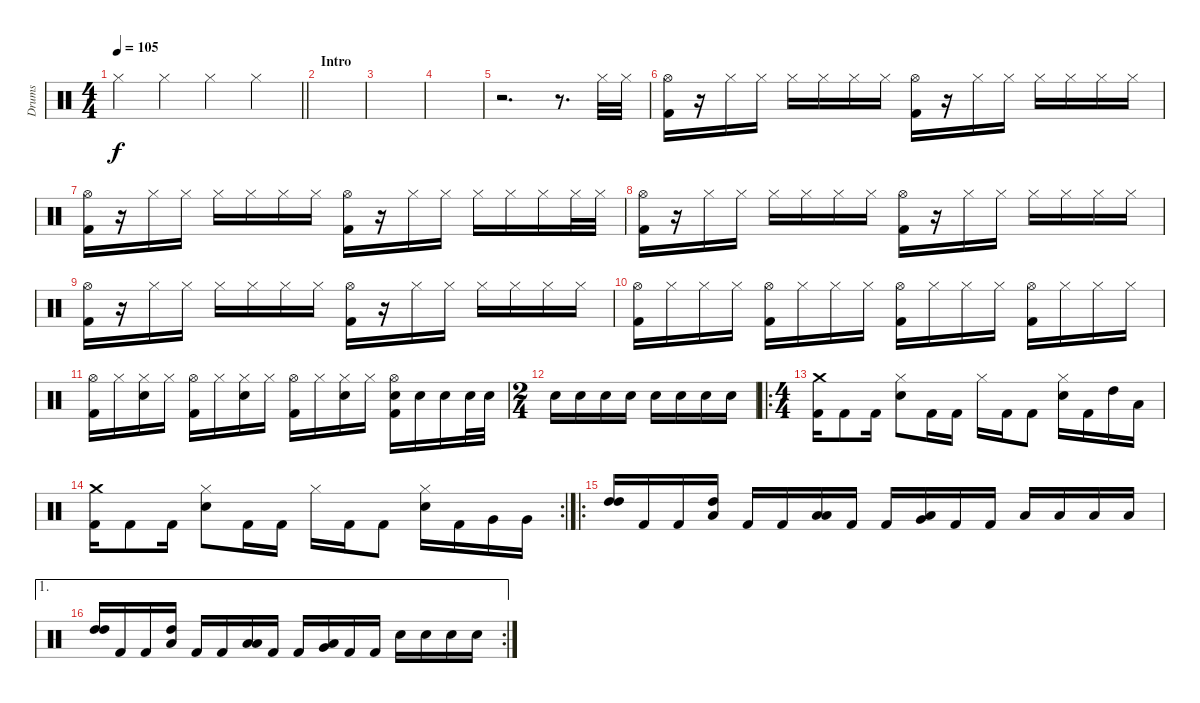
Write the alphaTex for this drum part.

\track ("Drums" "Drums") {instrument percussion}
\staff {score}
\articulation defaults
\ts (4 4)
\tempo 105
\clef neutral
\barLineRight lightlight
\ks c "Hi-Hat (closed)".4{dy f} "Hi-Hat (closed)".4 "Hi-Hat (closed)".4 "Hi-Hat (closed)".4
|
\section ("" "Intro")
|
|
|
r.2{d} r.8{d} "Hi-Hat (closed)".32 "Hi-Hat (closed)".32 |
("Hi-Hat (open)" "Kick (hit) 2").16 r.16 "Hi-Hat (closed)".16 "Hi-Hat (closed)".16 "Hi-Hat (closed)".16 "Hi-Hat (closed)".16 "Hi-Hat (closed)".16 "Hi-Hat (closed)".16 ("Hi-Hat (open)" "Kick (hit) 2").16 r.16 "Hi-Hat (closed)".16 "Hi-Hat (closed)".16 "Hi-Hat (closed)".16 "Hi-Hat (closed)".16 "Hi-Hat (closed)".16 "Hi-Hat (closed)".16 |
("Hi-Hat (open)" "Kick (hit) 2").16 r.16 "Hi-Hat (closed)".16 "Hi-Hat (closed)".16 "Hi-Hat (closed)".16 "Hi-Hat (closed)".16 "Hi-Hat (closed)".16 "Hi-Hat (closed)".16 ("Hi-Hat (open)" "Kick (hit) 2").16 r.16 "Hi-Hat (closed)".16 "Hi-Hat (closed)".16 "Hi-Hat (closed)".16 "Hi-Hat (closed)".16 "Hi-Hat (closed)".16 "Hi-Hat (closed)".32 "Hi-Hat (closed)".32 |
("Hi-Hat (open)" "Kick (hit) 2").16 r.16 "Hi-Hat (closed)".16 "Hi-Hat (closed)".16 "Hi-Hat (closed)".16 "Hi-Hat (closed)".16 "Hi-Hat (closed)".16 "Hi-Hat (closed)".16 ("Hi-Hat (open)" "Kick (hit) 2").16 r.16 "Hi-Hat (closed)".16 "Hi-Hat (closed)".16 "Hi-Hat (closed)".16 "Hi-Hat (closed)".16 "Hi-Hat (closed)".16 "Hi-Hat (closed)".16 |
("Hi-Hat (open)" "Kick (hit) 2").16 r.16 "Hi-Hat (closed)".16 "Hi-Hat (closed)".16 "Hi-Hat (closed)".16 "Hi-Hat (closed)".16 "Hi-Hat (closed)".16 "Hi-Hat (closed)".16 ("Hi-Hat (open)" "Kick (hit) 2").16 r.16 "Hi-Hat (closed)".16 "Hi-Hat (closed)".16 "Hi-Hat (closed)".16 "Hi-Hat (closed)".16 "Hi-Hat (closed)".16 "Hi-Hat (closed)".16 |
("Hi-Hat (open)" "Kick (hit) 2").16 "Hi-Hat (closed)".16 "Hi-Hat (closed)".16 "Hi-Hat (closed)".16 ("Hi-Hat (open)" "Kick (hit) 2").16 "Hi-Hat (closed)".16 "Hi-Hat (closed)".16 "Hi-Hat (closed)".16 ("Hi-Hat (open)" "Kick (hit) 2").16 "Hi-Hat (closed)".16 "Hi-Hat (closed)".16 "Hi-Hat (closed)".16 ("Hi-Hat (open)" "Kick (hit) 2").16 "Hi-Hat (closed)".16 "Hi-Hat (closed)".16 "Hi-Hat (closed)".16 |
("Hi-Hat (open)" "Kick (hit) 2").16 "Hi-Hat (closed)".16 ("Hi-Hat (closed)" "Snare (hit) 2").16 "Hi-Hat (closed)".16 ("Hi-Hat (open)" "Kick (hit) 2").16 "Hi-Hat (closed)".16 ("Hi-Hat (closed)" "Snare (hit) 2").16 "Hi-Hat (closed)".16 ("Hi-Hat (open)" "Kick (hit) 2").16 "Hi-Hat (closed)".16 ("Hi-Hat (closed)" "Snare (hit) 2").16 "Hi-Hat (closed)".16 ("Hi-Hat (open)" "Snare (hit) 2" "Kick (hit) 2").16 "Snare (hit) 2".16 "Snare (hit) 2".16 "Snare (hit) 2".32 "Snare (hit) 2".32 |
\ts (2 4)
"Snare (hit) 2".16 "Snare (hit) 2".16 "Snare (hit) 2".16 "Snare (hit) 2".16 "Snare (hit) 2".16 "Snare (hit) 2".16 "Snare (hit) 2".16 "Snare (hit) 2".16 |
\ro
\ts (4 4)
("Kick (hit) 2" "Crash medium (hit)").16 "Kick (hit) 2".8 "Kick (hit) 2".16 ("Snare (hit) 2" "Hi-Hat (closed)").8 "Kick (hit) 2".16 "Kick (hit) 2".16 "Hi-Hat (closed)".16 "Kick (hit) 2".16 "Kick (hit) 2".8 ("Snare (hit) 2" "Hi-Hat (closed)").16 "Kick (hit) 2".16 "High Tom (hit)".16 "Low Tom (hit)".16 |
\rc 2
("Kick (hit) 2" "Crash medium (hit)").16 "Kick (hit) 2".8 "Kick (hit) 2".16 ("Snare (hit) 2" "Hi-Hat (closed)").8 "Kick (hit) 2".16 "Kick (hit) 2".16 "Hi-Hat (closed)".16 "Kick (hit) 2".16 "Kick (hit) 2".8 ("Snare (hit) 2" "Hi-Hat (closed)").16 "Kick (hit) 2".16 "Very Low Tom (hit)".16 "Very Low Tom (hit)".16 |
\ro
("High Tom (hit)" "High Tom (hit)").16 "Kick (hit) 2".16 "Kick (hit) 2".16 ("High Tom (hit)" "Low Tom (hit)").16 "Kick (hit) 2".16 "Kick (hit) 2".16 ("Low Tom (hit)" "Low Tom (hit)").16 "Kick (hit) 2".16 "Kick (hit) 2".16 ("Low Tom (hit)" "Very Low Tom (hit)").16 "Kick (hit) 2".16 "Kick (hit) 2".16 "Low Tom (hit)".16 "Low Tom (hit)".16 "Low Tom (hit)".16 "Low Tom (hit)".16 |
\ae 1
\rc 2
("High Tom (hit)" "High Tom (hit)").16 "Kick (hit) 2".16 "Kick (hit) 2".16 ("High Tom (hit)" "Low Tom (hit)").16 "Kick (hit) 2".16 "Kick (hit) 2".16 ("Low Tom (hit)" "Low Tom (hit)").16 "Kick (hit) 2".16 "Kick (hit) 2".16 ("Low Tom (hit)" "Very Low Tom (hit)").16 "Kick (hit) 2".16 "Kick (hit) 2".16 "Snare (hit) 2".16 "Snare (hit) 2".16 "Snare (hit) 2".16 "Snare (hit) 2".16
